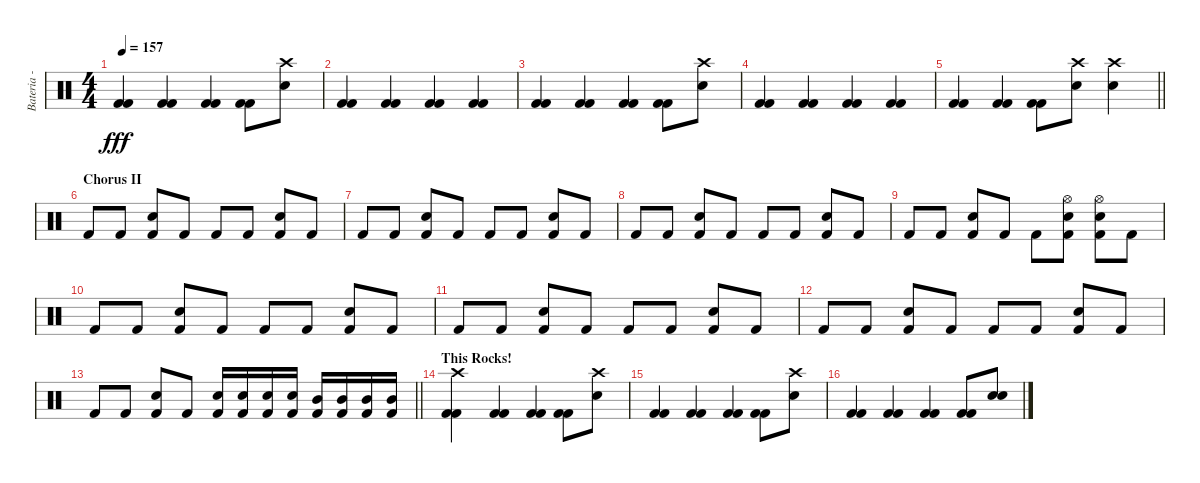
\track ("Bateria - Larzon" "Bateria - ") {instrument percussion}
\staff {score}
\articulation defaults
\ts (4 4)
\tempo 157
\clef neutral
\ks c
("Kick (hit) 2" "Kick (hit) 2").4{dy fff} ("Kick (hit) 2" "Kick (hit) 2").4 ("Kick (hit) 2" "Kick (hit) 2").4 ("Kick (hit) 2" "Kick (hit) 2").8 ("Crash high (hit)" "Snare (hit) 2").8 |
("Kick (hit) 2" "Kick (hit) 2").4 ("Kick (hit) 2" "Kick (hit) 2").4 ("Kick (hit) 2" "Kick (hit) 2").4 ("Kick (hit) 2" "Kick (hit) 2").4 |
("Kick (hit) 2" "Kick (hit) 2").4 ("Kick (hit) 2" "Kick (hit) 2").4 ("Kick (hit) 2" "Kick (hit) 2").4 ("Kick (hit) 2" "Kick (hit) 2").8 ("Crash high (hit)" "Snare (hit) 2").8 |
("Kick (hit) 2" "Kick (hit) 2").4 ("Kick (hit) 2" "Kick (hit) 2").4 ("Kick (hit) 2" "Kick (hit) 2").4 ("Kick (hit) 2" "Kick (hit) 2").4 |
\barLineRight lightlight
("Kick (hit) 2" "Kick (hit) 2").4 ("Kick (hit) 2" "Kick (hit) 2").4 ("Kick (hit) 2" "Kick (hit) 2").8 ("Crash high (hit)" "Snare (hit) 2").8 ("Crash high (hit)" "Snare (hit) 2").4 |
\section ("" "Chorus II")
"Kick (hit) 2".8 "Kick (hit) 2".8 ("Kick (hit) 2" "Snare (hit) 2").8 "Kick (hit) 2".8 "Kick (hit) 2".8 "Kick (hit) 2".8 ("Kick (hit) 2" "Snare (hit) 2").8 "Kick (hit) 2".8 |
"Kick (hit) 2".8 "Kick (hit) 2".8 ("Kick (hit) 2" "Snare (hit) 2").8 "Kick (hit) 2".8 "Kick (hit) 2".8 "Kick (hit) 2".8 ("Kick (hit) 2" "Snare (hit) 2").8 "Kick (hit) 2".8 |
"Kick (hit) 2".8 "Kick (hit) 2".8 ("Kick (hit) 2" "Snare (hit) 2").8 "Kick (hit) 2".8 "Kick (hit) 2".8 "Kick (hit) 2".8 ("Kick (hit) 2" "Snare (hit) 2").8 "Kick (hit) 2".8 |
"Kick (hit) 2".8 "Kick (hit) 2".8 ("Kick (hit) 2" "Snare (hit) 2").8 "Kick (hit) 2".8 "Kick (hit) 2".8 ("Kick (hit) 2" "Hi-Hat (open)" "Snare (hit) 2").8 ("Kick (hit) 2" "Hi-Hat (open)" "Snare (hit) 2").8 "Kick (hit) 2".8 |
"Kick (hit) 2".8 "Kick (hit) 2".8 ("Kick (hit) 2" "Snare (hit) 2").8 "Kick (hit) 2".8 "Kick (hit) 2".8 "Kick (hit) 2".8 ("Kick (hit) 2" "Snare (hit) 2").8 "Kick (hit) 2".8 |
"Kick (hit) 2".8 "Kick (hit) 2".8 ("Kick (hit) 2" "Snare (hit) 2").8 "Kick (hit) 2".8 "Kick (hit) 2".8 "Kick (hit) 2".8 ("Kick (hit) 2" "Snare (hit) 2").8 "Kick (hit) 2".8 |
"Kick (hit) 2".8 "Kick (hit) 2".8 ("Kick (hit) 2" "Snare (hit) 2").8 "Kick (hit) 2".8 "Kick (hit) 2".8 "Kick (hit) 2".8 ("Kick (hit) 2" "Snare (hit) 2").8 "Kick (hit) 2".8 |
\barLineRight lightlight "Kick (hit) 2".8 "Kick (hit) 2".8
("Kick (hit) 2" "Snare (hit) 2").8 "Kick (hit) 2".8 ("Kick (hit) 2" "Snare (hit) 2").16 ("Kick (hit) 2" "Snare (hit) 2").16 ("Kick (hit) 2" "Snare (hit) 2").16 ("Kick (hit) 2" "Snare (hit) 2").16 ("Kick (hit) 2" "Mid Tom (hit)").16 ("Kick (hit) 2" "Mid Tom (hit)").16 ("Kick (hit) 2" "Mid Tom (hit)").16 ("Kick (hit) 2" "Mid Tom (hit)").16 |
\section ("" "This Rocks!")
("Kick (hit) 2" "Kick (hit) 2" "Crash high (hit)").4 ("Kick (hit) 2" "Kick (hit) 2").4 ("Kick (hit) 2" "Kick (hit) 2").4 ("Kick (hit) 2" "Kick (hit) 2").8 ("Crash high (hit)" "Snare (hit) 2").8 |
("Kick (hit) 2" "Kick (hit) 2").4 ("Kick (hit) 2" "Kick (hit) 2").4 ("Kick (hit) 2" "Kick (hit) 2").4 ("Kick (hit) 2" "Kick (hit) 2").8 ("Crash high (hit)" "Snare (hit) 2").8 |
("Kick (hit) 2" "Kick (hit) 2").4 ("Kick (hit) 2" "Kick (hit) 2").4 ("Kick (hit) 2" "Kick (hit) 2").4 ("Kick (hit) 2" "Kick (hit) 2").8 ("Hand Clap (hit)" "Hand Clap (hit)").8
